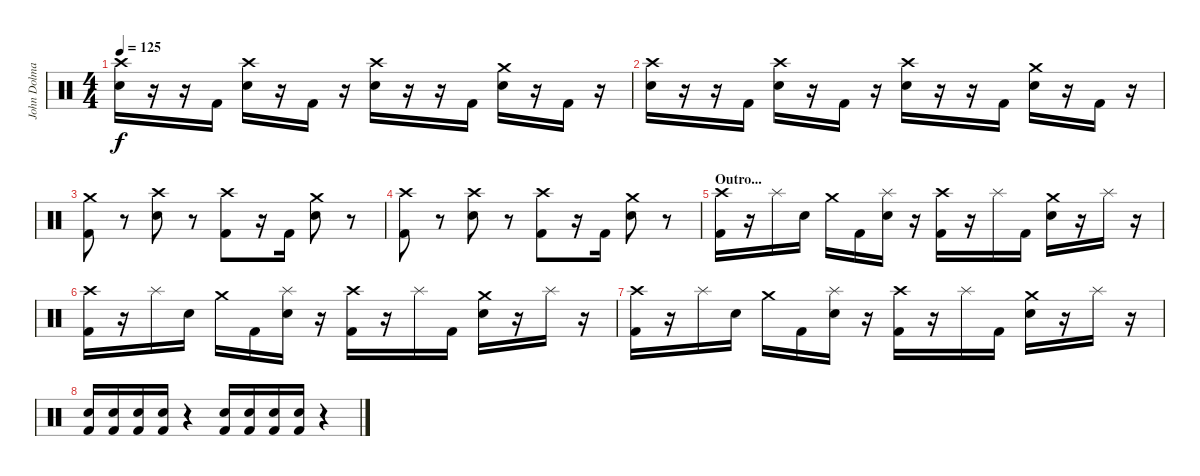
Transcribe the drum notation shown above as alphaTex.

\track ("John Dolmayan" "John Dolma") {instrument percussion}
\staff {score}
\articulation defaults
\ts (4 4)
\tempo 125
\clef neutral
\ks c
("Crash high (hit)" "Electric Snare (hit)").16{dy f} r.16 r.16 "Kick (hit) 2".16 ("Crash high (hit)" "Electric Snare (hit)").16 r.16 "Kick (hit) 2".16 r.16 ("Crash high (hit)" "Electric Snare (hit)").16 r.16 r.16 "Kick (hit) 2".16 ("Crash medium (hit)" "Electric Snare (hit)").16 r.16 "Kick (hit) 2".16 r.16 |
("Crash high (hit)" "Electric Snare (hit)").16 r.16 r.16 "Kick (hit) 2".16 ("Crash high (hit)" "Electric Snare (hit)").16 r.16 "Kick (hit) 2".16 r.16 ("Crash high (hit)" "Electric Snare (hit)").16 r.16 r.16 "Kick (hit) 2".16 ("Crash medium (hit)" "Electric Snare (hit)").16 r.16 "Kick (hit) 2".16 r.16 |
("Crash medium (hit)" "Kick (hit) 2").8 r.8 ("Crash high (hit)" "Electric Snare (hit)").8 r.8 ("Crash high (hit)" "Kick (hit) 2").8 r.16 "Kick (hit) 2".16 ("Crash medium (hit)" "Electric Snare (hit)").8 r.8 |
("Crash high (hit)" "Kick (hit) 2").8 r.8 ("Crash high (hit)" "Electric Snare (hit)").8 r.8 ("Crash high (hit)" "Kick (hit) 2").8 r.16 "Kick (hit) 2".16 ("Crash medium (hit)" "Electric Snare (hit)").8 r.8 |
\section ("" "Outro...")
("Crash high (hit)" "Kick (hit) 2").16 r.16 "Splash (hit)".16 "Electric Snare (hit)".16 "Crash medium (hit)".16 "Kick (hit) 2".16 ("Splash (hit)" "Electric Snare (hit)").16 r.16 ("Crash high (hit)" "Kick (hit) 2").16 r.16 "Splash (hit)".16 "Kick (hit) 2".16 ("Crash medium (hit)" "Electric Snare (hit)").16 r.16 "Splash (hit)".16 r.16 |
("Crash high (hit)" "Kick (hit) 2").16 r.16 "Splash (hit)".16 "Electric Snare (hit)".16 "Crash medium (hit)".16 "Kick (hit) 2".16 ("Splash (hit)" "Electric Snare (hit)").16 r.16 ("Crash high (hit)" "Kick (hit) 2").16 r.16 "Splash (hit)".16 "Kick (hit) 2".16 ("Crash medium (hit)" "Electric Snare (hit)").16 r.16 "Splash (hit)".16 r.16 |
("Crash high (hit)" "Kick (hit) 2").16 r.16 "Splash (hit)".16 "Electric Snare (hit)".16 "Crash medium (hit)".16 "Kick (hit) 2".16 ("Splash (hit)" "Electric Snare (hit)").16 r.16 ("Crash high (hit)" "Kick (hit) 2").16 r.16 "Splash (hit)".16 "Kick (hit) 2".16 ("Crash medium (hit)" "Electric Snare (hit)").16 r.16 "Splash (hit)".16 r.16 |
("Electric Snare (hit)" "Kick (hit) 2").16 ("Electric Snare (hit)" "Kick (hit) 2").16 ("Electric Snare (hit)" "Kick (hit) 2").16 ("Electric Snare (hit)" "Kick (hit) 2").16 r.4 ("Electric Snare (hit)" "Kick (hit) 2").16 ("Electric Snare (hit)" "Kick (hit) 2").16 ("Electric Snare (hit)" "Kick (hit) 2").16 ("Electric Snare (hit)" "Kick (hit) 2").16 r.4
